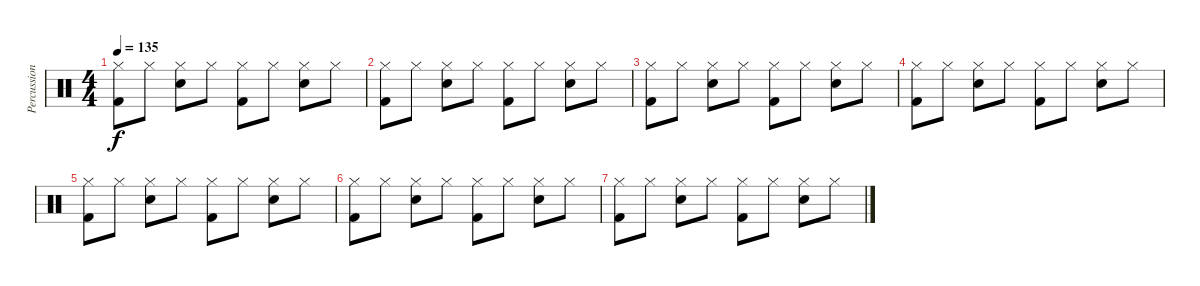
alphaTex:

\track ("Percussions" "Percussion") {instrument percussion}
\staff {score}
\articulation defaults
\ts (4 4)
\tempo 135
\clef neutral
\ks c
("Kick (hit) 2" "Hi-Hat (closed)").8{dy f} "Hi-Hat (closed)".8 ("Hi-Hat (closed)" "Snare (hit) 2").8 "Hi-Hat (closed)".8 ("Hi-Hat (closed)" "Kick (hit) 2").8 "Hi-Hat (closed)".8 ("Hi-Hat (closed)" "Snare (hit) 2").8 "Hi-Hat (closed)".8 |
("Kick (hit) 2" "Hi-Hat (closed)").8 "Hi-Hat (closed)".8 ("Hi-Hat (closed)" "Snare (hit) 2").8 "Hi-Hat (closed)".8 ("Hi-Hat (closed)" "Kick (hit) 2").8 "Hi-Hat (closed)".8 ("Hi-Hat (closed)" "Snare (hit) 2").8 "Hi-Hat (closed)".8 |
("Kick (hit) 2" "Hi-Hat (closed)").8 "Hi-Hat (closed)".8 ("Hi-Hat (closed)" "Snare (hit) 2").8 "Hi-Hat (closed)".8 ("Hi-Hat (closed)" "Kick (hit) 2").8 "Hi-Hat (closed)".8 ("Hi-Hat (closed)" "Snare (hit) 2").8 "Hi-Hat (closed)".8 |
("Kick (hit) 2" "Hi-Hat (closed)").8 "Hi-Hat (closed)".8 ("Hi-Hat (closed)" "Snare (hit) 2").8 "Hi-Hat (closed)".8 ("Hi-Hat (closed)" "Kick (hit) 2").8 "Hi-Hat (closed)".8 ("Hi-Hat (closed)" "Snare (hit) 2").8 "Hi-Hat (closed)".8 |
("Kick (hit) 2" "Hi-Hat (closed)").8 "Hi-Hat (closed)".8 ("Hi-Hat (closed)" "Snare (hit) 2").8 "Hi-Hat (closed)".8 ("Hi-Hat (closed)" "Kick (hit) 2").8 "Hi-Hat (closed)".8 ("Hi-Hat (closed)" "Snare (hit) 2").8 "Hi-Hat (closed)".8 |
("Kick (hit) 2" "Hi-Hat (closed)").8 "Hi-Hat (closed)".8 ("Hi-Hat (closed)" "Snare (hit) 2").8 "Hi-Hat (closed)".8 ("Hi-Hat (closed)" "Kick (hit) 2").8 "Hi-Hat (closed)".8 ("Hi-Hat (closed)" "Snare (hit) 2").8 "Hi-Hat (closed)".8 |
("Kick (hit) 2" "Hi-Hat (closed)").8 "Hi-Hat (closed)".8 ("Hi-Hat (closed)" "Snare (hit) 2").8 "Hi-Hat (closed)".8 ("Hi-Hat (closed)" "Kick (hit) 2").8 "Hi-Hat (closed)".8 ("Hi-Hat (closed)" "Snare (hit) 2").8 "Hi-Hat (closed)".8
